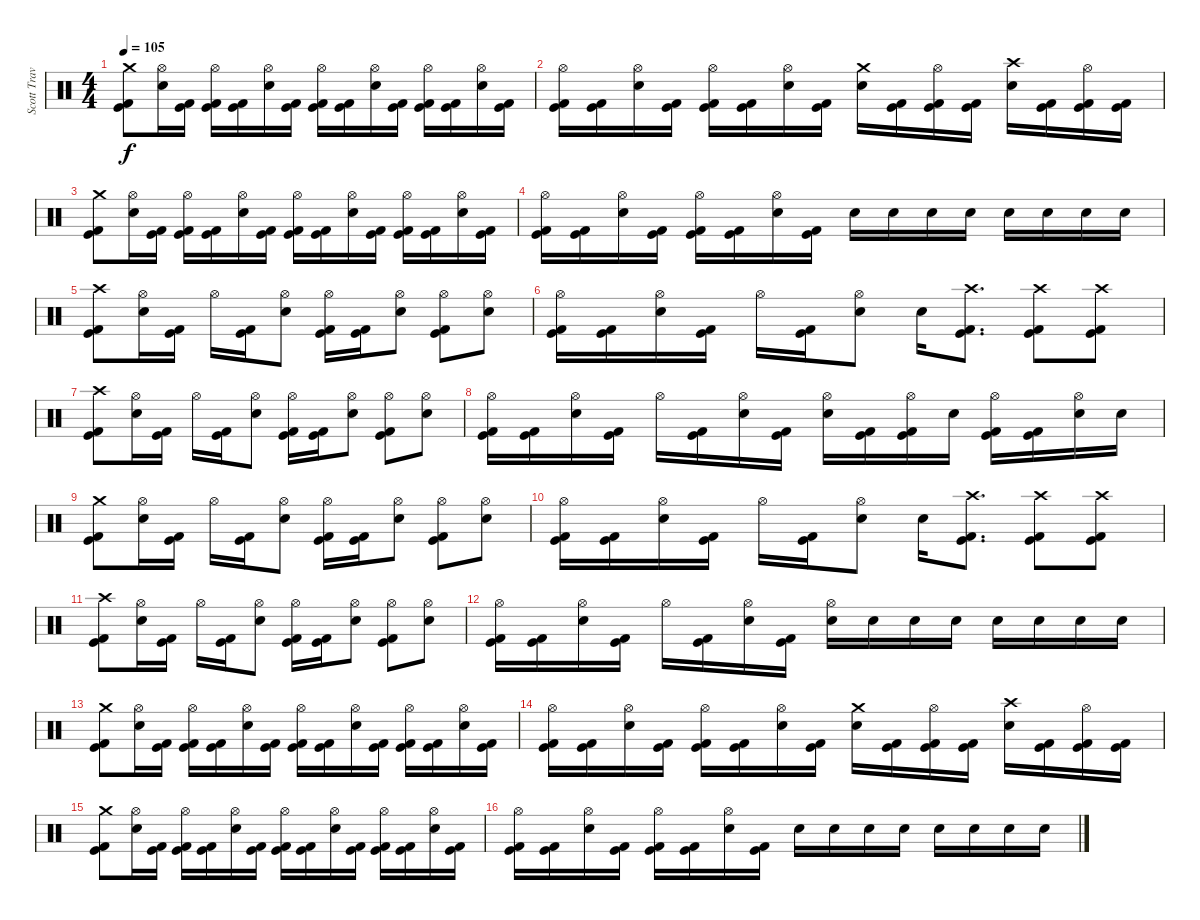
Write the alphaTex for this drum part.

\track ("Scott Travis" "Scott Trav") {instrument percussion}
\staff {score}
\articulation defaults
\ts (4 4)
\tempo 105
\clef neutral
\ks c
("Crash medium (hit)" "Kick (hit)" "Kick (hit) 2").8{dy f} ("Hi-Hat (open)" "Snare (hit) 2").16 ("Kick (hit) 2" "Kick (hit)").16 ("Hi-Hat (open)" "Kick (hit) 2" "Kick (hit)").16 ("Kick (hit) 2" "Kick (hit)").16 ("Hi-Hat (open)" "Snare (hit) 2").16 ("Kick (hit) 2" "Kick (hit)").16 ("Hi-Hat (open)" "Kick (hit) 2" "Kick (hit)").16 ("Kick (hit) 2" "Kick (hit)").16 ("Hi-Hat (open)" "Snare (hit) 2").16 ("Kick (hit) 2" "Kick (hit)").16 ("Hi-Hat (open)" "Kick (hit) 2" "Kick (hit)").16 ("Kick (hit) 2" "Kick (hit)").16 ("Hi-Hat (open)" "Snare (hit) 2").16 ("Kick (hit) 2" "Kick (hit)").16 |
("Hi-Hat (open)" "Kick (hit) 2" "Kick (hit)").16 ("Kick (hit) 2" "Kick (hit)").16 ("Hi-Hat (open)" "Snare (hit) 2").16 ("Kick (hit) 2" "Kick (hit)").16 ("Hi-Hat (open)" "Kick (hit) 2" "Kick (hit)").16 ("Kick (hit) 2" "Kick (hit)").16 ("Hi-Hat (open)" "Snare (hit) 2").16 ("Kick (hit) 2" "Kick (hit)").16 ("Crash medium (hit)" "Snare (hit) 2").16 ("Kick (hit) 2" "Kick (hit)").16 ("Hi-Hat (open)" "Kick (hit) 2" "Kick (hit)").16 ("Kick (hit) 2" "Kick (hit)").16 ("Crash high (hit)" "Snare (hit) 2").16 ("Kick (hit) 2" "Kick (hit)").16 ("Hi-Hat (open)" "Kick (hit) 2" "Kick (hit)").16 ("Kick (hit) 2" "Kick (hit)").16 |
("Crash medium (hit)" "Kick (hit)" "Kick (hit) 2").8 ("Hi-Hat (open)" "Snare (hit) 2").16 ("Kick (hit) 2" "Kick (hit)").16 ("Hi-Hat (open)" "Kick (hit) 2" "Kick (hit)").16 ("Kick (hit) 2" "Kick (hit)").16 ("Hi-Hat (open)" "Snare (hit) 2").16 ("Kick (hit) 2" "Kick (hit)").16 ("Hi-Hat (open)" "Kick (hit) 2" "Kick (hit)").16 ("Kick (hit) 2" "Kick (hit)").16 ("Hi-Hat (open)" "Snare (hit) 2").16 ("Kick (hit) 2" "Kick (hit)").16 ("Hi-Hat (open)" "Kick (hit) 2" "Kick (hit)").16 ("Kick (hit) 2" "Kick (hit)").16 ("Hi-Hat (open)" "Snare (hit) 2").16 ("Kick (hit) 2" "Kick (hit)").16 |
("Hi-Hat (open)" "Kick (hit) 2" "Kick (hit)").16 ("Kick (hit) 2" "Kick (hit)").16 ("Hi-Hat (open)" "Snare (hit) 2").16 ("Kick (hit) 2" "Kick (hit)").16 ("Hi-Hat (open)" "Kick (hit) 2" "Kick (hit)").16 ("Kick (hit) 2" "Kick (hit)").16 ("Hi-Hat (open)" "Snare (hit) 2").16 ("Kick (hit) 2" "Kick (hit)").16 "Snare (hit) 2".16 "Snare (hit) 2".16 "Snare (hit) 2".16 "Snare (hit) 2".16 "Snare (hit) 2".16 "Snare (hit) 2".16 "Snare (hit) 2".16 "Snare (hit) 2".16 |
("Crash high (hit)" "Kick (hit) 2" "Kick (hit)").8 ("Hi-Hat (open)" "Snare (hit) 2").16 ("Kick (hit) 2" "Kick (hit)").16 "Hi-Hat (open)".16 ("Kick (hit) 2" "Kick (hit)").16 ("Hi-Hat (open)" "Snare (hit) 2").8 ("Hi-Hat (open)" "Kick (hit) 2" "Kick (hit)").16 ("Kick (hit) 2" "Kick (hit)").16 ("Hi-Hat (open)" "Snare (hit) 2").8 ("Hi-Hat (open)" "Kick (hit) 2" "Kick (hit)").8 ("Hi-Hat (open)" "Snare (hit) 2").8 |
("Hi-Hat (open)" "Kick (hit) 2" "Kick (hit)").16 ("Kick (hit) 2" "Kick (hit)").16 ("Hi-Hat (open)" "Snare (hit) 2").16 ("Kick (hit) 2" "Kick (hit)").16 "Hi-Hat (open)".16 ("Kick (hit) 2" "Kick (hit)").16 ("Hi-Hat (open)" "Snare (hit) 2").8 "Snare (hit) 2".16 ("Crash high (hit)" "Kick (hit)" "Kick (hit) 2").8{d} ("Crash high (hit)" "Kick (hit) 2" "Kick (hit)").8 ("Crash high (hit)" "Kick (hit)" "Kick (hit) 2").8 |
("Crash high (hit)" "Kick (hit) 2" "Kick (hit)").8 ("Hi-Hat (open)" "Snare (hit) 2").16 ("Kick (hit) 2" "Kick (hit)").16 "Hi-Hat (open)".16 ("Kick (hit) 2" "Kick (hit)").16 ("Hi-Hat (open)" "Snare (hit) 2").8 ("Hi-Hat (open)" "Kick (hit) 2" "Kick (hit)").16 ("Kick (hit) 2" "Kick (hit)").16 ("Hi-Hat (open)" "Snare (hit) 2").8 ("Hi-Hat (open)" "Kick (hit) 2" "Kick (hit)").8 ("Hi-Hat (open)" "Snare (hit) 2").8 |
("Hi-Hat (open)" "Kick (hit) 2" "Kick (hit)").16 ("Kick (hit) 2" "Kick (hit)").16 ("Hi-Hat (open)" "Snare (hit) 2").16 ("Kick (hit) 2" "Kick (hit)").16 "Hi-Hat (open)".16 ("Kick (hit) 2" "Kick (hit)").16 ("Hi-Hat (open)" "Snare (hit) 2").16 ("Kick (hit)" "Kick (hit) 2").16 ("Hi-Hat (open)" "Snare (hit) 2").16 ("Kick (hit) 2" "Kick (hit)").16 ("Hi-Hat (open)" "Kick (hit) 2" "Kick (hit)").16 "Snare (hit) 2".16 ("Hi-Hat (open)" "Kick (hit) 2" "Kick (hit)").16 ("Kick (hit) 2" "Kick (hit)").16 ("Hi-Hat (open)" "Snare (hit) 2").16 "Snare (hit) 2".16 |
("Crash medium (hit)" "Kick (hit) 2" "Kick (hit)").8 ("Hi-Hat (open)" "Snare (hit) 2").16 ("Kick (hit) 2" "Kick (hit)").16 "Hi-Hat (open)".16 ("Kick (hit) 2" "Kick (hit)").16 ("Hi-Hat (open)" "Snare (hit) 2").8 ("Hi-Hat (open)" "Kick (hit) 2" "Kick (hit)").16 ("Kick (hit) 2" "Kick (hit)").16 ("Hi-Hat (open)" "Snare (hit) 2").8 ("Hi-Hat (open)" "Kick (hit) 2" "Kick (hit)").8 ("Hi-Hat (open)" "Snare (hit) 2").8 |
("Hi-Hat (open)" "Kick (hit) 2" "Kick (hit)").16 ("Kick (hit) 2" "Kick (hit)").16 ("Hi-Hat (open)" "Snare (hit) 2").16 ("Kick (hit) 2" "Kick (hit)").16 "Hi-Hat (open)".16 ("Kick (hit) 2" "Kick (hit)").16 ("Hi-Hat (open)" "Snare (hit) 2").8 "Snare (hit) 2".16 ("Crash high (hit)" "Kick (hit)" "Kick (hit) 2").8{d} ("Crash high (hit)" "Kick (hit) 2" "Kick (hit)").8 ("Crash high (hit)" "Kick (hit)" "Kick (hit) 2").8 |
("Crash high (hit)" "Kick (hit) 2" "Kick (hit)").8 ("Hi-Hat (open)" "Snare (hit) 2").16 ("Kick (hit) 2" "Kick (hit)").16 "Hi-Hat (open)".16 ("Kick (hit) 2" "Kick (hit)").16 ("Hi-Hat (open)" "Snare (hit) 2").8 ("Hi-Hat (open)" "Kick (hit) 2" "Kick (hit)").16 ("Kick (hit) 2" "Kick (hit)").16 ("Hi-Hat (open)" "Snare (hit) 2").8 ("Hi-Hat (open)" "Kick (hit) 2" "Kick (hit)").8 ("Hi-Hat (open)" "Snare (hit) 2").8 |
("Hi-Hat (open)" "Kick (hit) 2" "Kick (hit)").16 ("Kick (hit) 2" "Kick (hit)").16 ("Hi-Hat (open)" "Snare (hit) 2").16 ("Kick (hit) 2" "Kick (hit)").16 "Hi-Hat (open)".16 ("Kick (hit) 2" "Kick (hit)").16 ("Hi-Hat (open)" "Snare (hit) 2").16 ("Kick (hit)" "Kick (hit) 2").16 ("Hi-Hat (open)" "Snare (hit) 2").16 "Snare (hit) 2".16 "Snare (hit) 2".16 "Snare (hit) 2".16 "Snare (hit) 2".16 "Snare (hit) 2".16 "Snare (hit) 2".16 "Snare (hit) 2".16 |
("Crash medium (hit)" "Kick (hit)" "Kick (hit) 2").8 ("Hi-Hat (open)" "Snare (hit) 2").16 ("Kick (hit) 2" "Kick (hit)").16 ("Hi-Hat (open)" "Kick (hit) 2" "Kick (hit)").16 ("Kick (hit) 2" "Kick (hit)").16 ("Hi-Hat (open)" "Snare (hit) 2").16 ("Kick (hit) 2" "Kick (hit)").16 ("Hi-Hat (open)" "Kick (hit) 2" "Kick (hit)").16 ("Kick (hit) 2" "Kick (hit)").16 ("Hi-Hat (open)" "Snare (hit) 2").16 ("Kick (hit) 2" "Kick (hit)").16 ("Hi-Hat (open)" "Kick (hit) 2" "Kick (hit)").16 ("Kick (hit) 2" "Kick (hit)").16 ("Hi-Hat (open)" "Snare (hit) 2").16 ("Kick (hit) 2" "Kick (hit)").16 |
("Hi-Hat (open)" "Kick (hit) 2" "Kick (hit)").16 ("Kick (hit) 2" "Kick (hit)").16 ("Hi-Hat (open)" "Snare (hit) 2").16 ("Kick (hit) 2" "Kick (hit)").16 ("Hi-Hat (open)" "Kick (hit) 2" "Kick (hit)").16 ("Kick (hit) 2" "Kick (hit)").16 ("Hi-Hat (open)" "Snare (hit) 2").16 ("Kick (hit) 2" "Kick (hit)").16 ("Crash medium (hit)" "Snare (hit) 2").16 ("Kick (hit) 2" "Kick (hit)").16 ("Hi-Hat (open)" "Kick (hit) 2" "Kick (hit)").16 ("Kick (hit) 2" "Kick (hit)").16 ("Crash high (hit)" "Snare (hit) 2").16 ("Kick (hit) 2" "Kick (hit)").16 ("Hi-Hat (open)" "Kick (hit) 2" "Kick (hit)").16 ("Kick (hit) 2" "Kick (hit)").16 |
("Crash medium (hit)" "Kick (hit)" "Kick (hit) 2").8 ("Hi-Hat (open)" "Snare (hit) 2").16 ("Kick (hit) 2" "Kick (hit)").16 ("Hi-Hat (open)" "Kick (hit) 2" "Kick (hit)").16 ("Kick (hit) 2" "Kick (hit)").16 ("Hi-Hat (open)" "Snare (hit) 2").16 ("Kick (hit) 2" "Kick (hit)").16 ("Hi-Hat (open)" "Kick (hit) 2" "Kick (hit)").16 ("Kick (hit) 2" "Kick (hit)").16 ("Hi-Hat (open)" "Snare (hit) 2").16 ("Kick (hit) 2" "Kick (hit)").16 ("Hi-Hat (open)" "Kick (hit) 2" "Kick (hit)").16 ("Kick (hit) 2" "Kick (hit)").16 ("Hi-Hat (open)" "Snare (hit) 2").16 ("Kick (hit) 2" "Kick (hit)").16 |
("Hi-Hat (open)" "Kick (hit) 2" "Kick (hit)").16 ("Kick (hit) 2" "Kick (hit)").16 ("Hi-Hat (open)" "Snare (hit) 2").16 ("Kick (hit) 2" "Kick (hit)").16 ("Hi-Hat (open)" "Kick (hit) 2" "Kick (hit)").16 ("Kick (hit) 2" "Kick (hit)").16 ("Hi-Hat (open)" "Snare (hit) 2").16 ("Kick (hit) 2" "Kick (hit)").16 "Snare (hit) 2".16 "Snare (hit) 2".16 "Snare (hit) 2".16 "Snare (hit) 2".16 "Snare (hit) 2".16 "Snare (hit) 2".16 "Snare (hit) 2".16 "Snare (hit) 2".16
